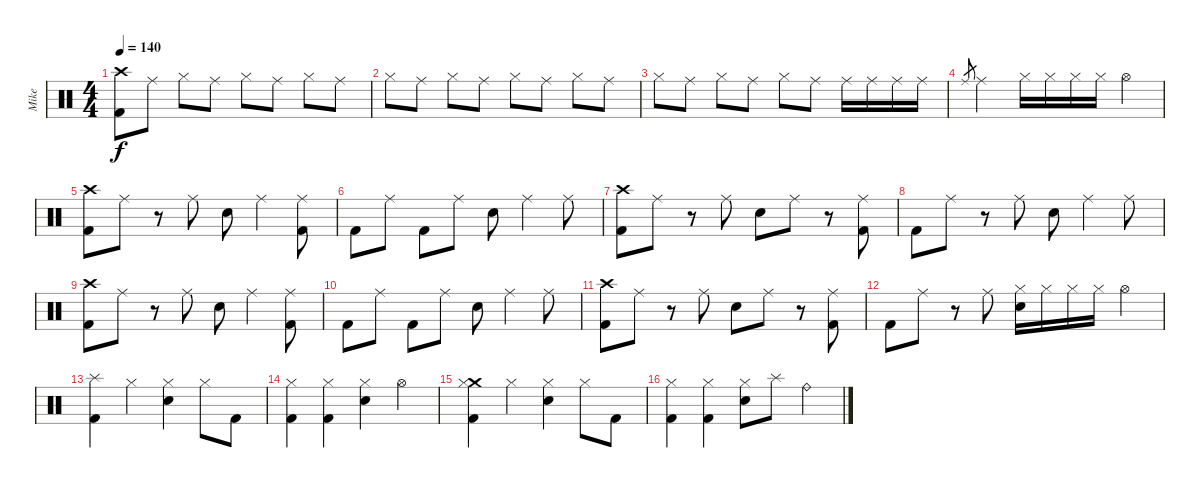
\track ("Mike" "Mike") {instrument percussion}
\staff {score}
\articulation defaults
\ts (4 4)
\tempo 140
\clef neutral
\ks c
("Kick (hit) 2" "Crash high (hit)").8{dy f} "Ride (middle)".8 "Hi-Hat (closed)".8 "Ride (middle)".8 "Hi-Hat (closed)".8 "Ride (middle)".8 "Hi-Hat (closed)".8 "Ride (middle)".8 |
"Hi-Hat (closed)".8 "Ride (middle)".8 "Hi-Hat (closed)".8 "Ride (middle)".8 "Hi-Hat (closed)".8 "Ride (middle)".8 "Hi-Hat (closed)".8 "Ride (middle)".8 |
"Hi-Hat (closed)".8 "Ride (middle)".8 "Hi-Hat (closed)".8 "Ride (middle)".8 "Hi-Hat (closed)".8 "Ride (middle)".8 "Ride (middle)".16 "Ride (middle)".16 "Ride (middle)".16 "Ride (middle)".16 |
"Ride (middle)".8{gr} "Ride (middle)".2 "Hi-Hat (closed)".16 "Hi-Hat (closed)".16 "Hi-Hat (closed)".16 "Hi-Hat (closed)".16 "Hi-Hat (open)".4 |
("Kick (hit) 2" "Crash high (hit)").8 "Ride (middle)".8 r.8 "Ride (middle)".8 "Electric Snare (hit)".8 "Ride (middle)".4 ("Kick (hit) 2" "Ride (middle)").8 |
"Kick (hit) 2".8 "Ride (middle)".8 "Kick (hit) 2".8 "Ride (middle)".8 "Electric Snare (hit)".8 "Ride (middle)".4 "Ride (middle)".8 |
("Kick (hit) 2" "Crash high (hit)").8 "Ride (middle)".8 r.8 "Ride (middle)".8 "Electric Snare (hit)".8 "Ride (middle)".8 r.8 ("Kick (hit) 2" "Ride (middle)").8 |
"Kick (hit) 2".8 "Ride (middle)".8 r.8 "Ride (middle)".8 "Electric Snare (hit)".8 "Ride (middle)".4 "Ride (middle)".8 |
("Kick (hit) 2" "Crash high (hit)").8 "Ride (middle)".8 r.8 "Ride (middle)".8 "Electric Snare (hit)".8 "Ride (middle)".4 ("Kick (hit) 2" "Ride (middle)").8 |
"Kick (hit) 2".8 "Ride (middle)".8 "Kick (hit) 2".8 "Ride (middle)".8 "Electric Snare (hit)".8 "Ride (middle)".4 "Ride (middle)".8 |
("Kick (hit) 2" "Crash high (hit)").8 "Ride (middle)".8 r.8 "Ride (middle)".8 "Electric Snare (hit)".8 "Ride (middle)".8 r.8 ("Kick (hit) 2" "Ride (middle)").8 |
"Kick (hit) 2".8 "Ride (middle)".8 r.8 "Ride (middle)".8 ("Electric Snare (hit)" "Hi-Hat (closed)").16 "Hi-Hat (closed)".16 "Hi-Hat (closed)".16 "Hi-Hat (closed)".16 "Hi-Hat (open)".4 |
("Kick (hit) 2" "Splash (hit)").4 "Hi-Hat (closed)".4 ("Electric Snare (hit)" "Hi-Hat (closed)").4 "Hi-Hat (closed)".8 "Kick (hit) 2".8 |
("Kick (hit) 2" "Hi-Hat (closed)").4 ("Kick (hit) 2" "Hi-Hat (closed)").4 ("Electric Snare (hit)" "Hi-Hat (closed)").4 "Hi-Hat (open)".4 |
("Kick (hit) 2" "Crash medium (hit)" "Hi-Hat (closed)").4 "Hi-Hat (closed)".4 ("Electric Snare (hit)" "Hi-Hat (closed)").4 "Hi-Hat (closed)".8 "Kick (hit) 2".8 |
("Kick (hit) 2" "Hi-Hat (closed)").4 ("Kick (hit) 2" "Hi-Hat (closed)").4 ("Electric Snare (hit)" "Hi-Hat (closed)").8 "Splash (hit)".8 "Ride (bell)".4
